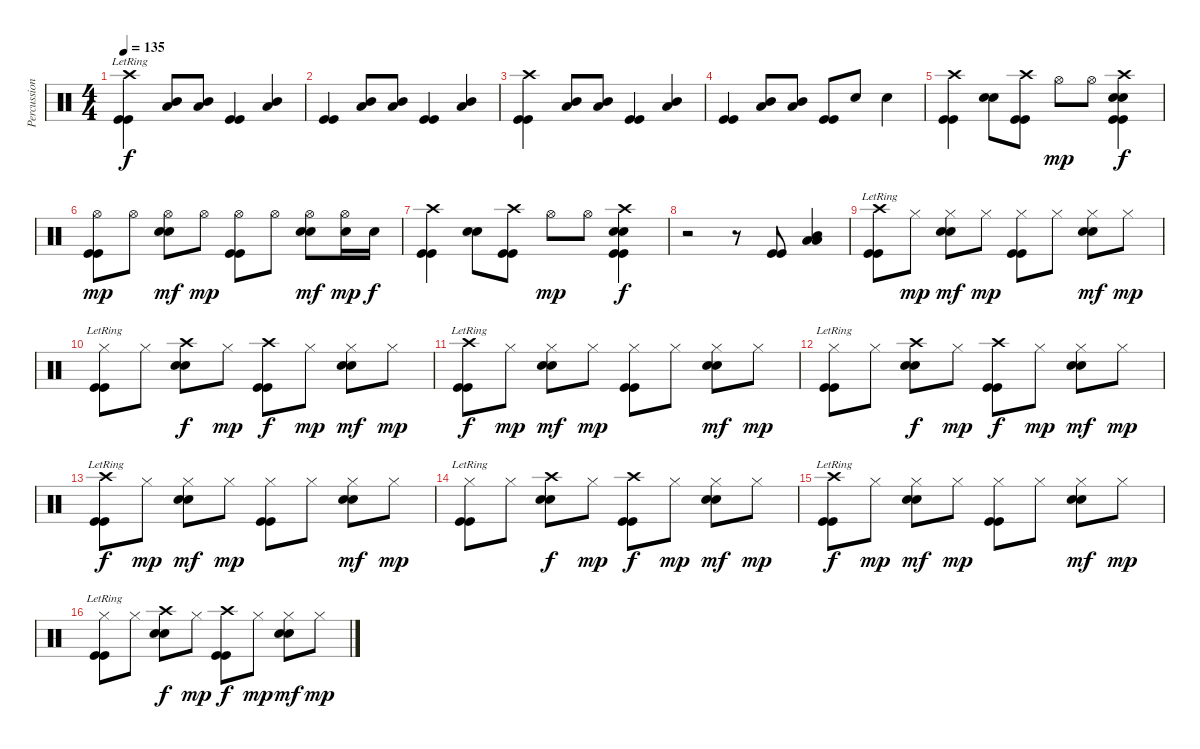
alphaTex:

\track ("Percussions" "Percussion") {instrument percussion}
\staff {score}
\articulation defaults
\ts (4 4)
\tempo 135
\clef neutral
\ks c
("Crash high (hit)"{lr} "Kick (hit)" "Kick (hit)").4{dy f} ("Low Tom (hit)" "Mid Tom (hit)").8 ("Low Tom (hit)" "Mid Tom (hit)").8 ("Kick (hit)" "Kick (hit)").4 ("Low Tom (hit)" "Mid Tom (hit)").4 |
("Kick (hit)" "Kick (hit)").4 ("Low Tom (hit)" "Mid Tom (hit)").8 ("Low Tom (hit)" "Mid Tom (hit)").8 ("Kick (hit)" "Kick (hit)").4 ("Low Tom (hit)" "Mid Tom (hit)").4 |
("Crash high (hit)" "Kick (hit)" "Kick (hit)").4 ("Low Tom (hit)" "Mid Tom (hit)").8 ("Low Tom (hit)" "Mid Tom (hit)").8 ("Kick (hit)" "Kick (hit)").4 ("Low Tom (hit)" "Mid Tom (hit)").4 |
("Kick (hit)" "Kick (hit)").4 ("Low Tom (hit)" "Mid Tom (hit)").8 ("Low Tom (hit)" "Mid Tom (hit)").8 ("Kick (hit)" "Kick (hit)").8 "Snare (hit) 2".8 "Snare (hit) 2".4 |
("Crash high (hit)" "Kick (hit)" "Kick (hit)").4 ("Snare (hit) 2" "Snare (hit) 2").8 ("Crash high (hit)" "Kick (hit)" "Kick (hit)").8 "Hi-Hat (open)".8{dy mp} "Hi-Hat (open)".8 ("Crash high (hit)" "Snare (hit) 2" "Snare (hit) 2" "Kick (hit)" "Kick (hit)").4{dy f} |
("Hi-Hat (open)" "Kick (hit)" "Kick (hit)").8{dy mp} "Hi-Hat (open)".8 ("Hi-Hat (open)" "Snare (hit) 2" "Snare (hit) 2").8{dy mf} "Hi-Hat (open)".8{dy mp} ("Hi-Hat (open)" "Kick (hit)" "Kick (hit)").8 "Hi-Hat (open)".8 ("Hi-Hat (open)" "Snare (hit) 2" "Snare (hit) 2").8{dy mf} ("Hi-Hat (open)" "Snare (hit) 2").16{dy mp} "Snare (hit) 2".16{dy f} |
("Crash high (hit)" "Kick (hit)" "Kick (hit)").4 ("Snare (hit) 2" "Snare (hit) 2").8 ("Crash high (hit)" "Kick (hit)" "Kick (hit)").8 "Hi-Hat (open)".8{dy mp} "Hi-Hat (open)".8 ("Crash high (hit)" "Snare (hit) 2" "Snare (hit) 2" "Kick (hit)" "Kick (hit)").4{dy f} |
r.2 r.8 ("Kick (hit)" "Kick (hit)").8 ("Low Tom (hit)" "Low Tom (hit)" "Mid Tom (hit)").4 |
("Crash high (hit)"{lr} "Kick (hit)" "Kick (hit)").8 "Hi-Hat (closed)".8{dy mp} ("Hi-Hat (closed)" "Snare (hit) 2" "Snare (hit) 2").8{dy mf} "Hi-Hat (closed)".8{dy mp} ("Hi-Hat (closed)" "Kick (hit)" "Kick (hit)").8 "Hi-Hat (closed)".8 ("Hi-Hat (closed)" "Snare (hit) 2" "Snare (hit) 2").8{dy mf} "Hi-Hat (closed)".8{dy mp} |
("Hi-Hat (closed)"{lr} "Kick (hit)" "Kick (hit)").8 "Hi-Hat (closed)".8 ("Crash high (hit)" "Snare (hit) 2" "Snare (hit) 2").8{dy f} "Hi-Hat (closed)".8{dy mp} ("Crash high (hit)" "Kick (hit)" "Kick (hit)").8{dy f} "Hi-Hat (closed)".8{dy mp} ("Hi-Hat (closed)" "Snare (hit) 2" "Snare (hit) 2").8{dy mf} "Hi-Hat (closed)".8{dy mp} |
("Crash high (hit)"{lr} "Kick (hit)" "Kick (hit)").8{dy f} "Hi-Hat (closed)".8{dy mp} ("Hi-Hat (closed)" "Snare (hit) 2" "Snare (hit) 2").8{dy mf} "Hi-Hat (closed)".8{dy mp} ("Hi-Hat (closed)" "Kick (hit)" "Kick (hit)").8 "Hi-Hat (closed)".8 ("Hi-Hat (closed)" "Snare (hit) 2" "Snare (hit) 2").8{dy mf} "Hi-Hat (closed)".8{dy mp} |
("Hi-Hat (closed)"{lr} "Kick (hit)" "Kick (hit)").8 "Hi-Hat (closed)".8 ("Crash high (hit)" "Snare (hit) 2" "Snare (hit) 2").8{dy f} "Hi-Hat (closed)".8{dy mp} ("Crash high (hit)" "Kick (hit)" "Kick (hit)").8{dy f} "Hi-Hat (closed)".8{dy mp} ("Hi-Hat (closed)" "Snare (hit) 2" "Snare (hit) 2").8{dy mf} "Hi-Hat (closed)".8{dy mp} |
("Crash high (hit)"{lr} "Kick (hit)" "Kick (hit)").8{dy f} "Hi-Hat (closed)".8{dy mp} ("Hi-Hat (closed)" "Snare (hit) 2" "Snare (hit) 2").8{dy mf} "Hi-Hat (closed)".8{dy mp} ("Hi-Hat (closed)" "Kick (hit)" "Kick (hit)").8 "Hi-Hat (closed)".8 ("Hi-Hat (closed)" "Snare (hit) 2" "Snare (hit) 2").8{dy mf} "Hi-Hat (closed)".8{dy mp} |
("Hi-Hat (closed)"{lr} "Kick (hit)" "Kick (hit)").8 "Hi-Hat (closed)".8 ("Crash high (hit)" "Snare (hit) 2" "Snare (hit) 2").8{dy f} "Hi-Hat (closed)".8{dy mp} ("Crash high (hit)" "Kick (hit)" "Kick (hit)").8{dy f} "Hi-Hat (closed)".8{dy mp} ("Hi-Hat (closed)" "Snare (hit) 2" "Snare (hit) 2").8{dy mf} "Hi-Hat (closed)".8{dy mp} |
("Crash high (hit)"{lr} "Kick (hit)" "Kick (hit)").8{dy f} "Hi-Hat (closed)".8{dy mp} ("Hi-Hat (closed)" "Snare (hit) 2" "Snare (hit) 2").8{dy mf} "Hi-Hat (closed)".8{dy mp} ("Hi-Hat (closed)" "Kick (hit)" "Kick (hit)").8 "Hi-Hat (closed)".8 ("Hi-Hat (closed)" "Snare (hit) 2" "Snare (hit) 2").8{dy mf} "Hi-Hat (closed)".8{dy mp} |
("Hi-Hat (closed)"{lr} "Kick (hit)" "Kick (hit)").8 "Hi-Hat (closed)".8 ("Crash high (hit)" "Snare (hit) 2" "Snare (hit) 2").8{dy f} "Hi-Hat (closed)".8{dy mp} ("Crash high (hit)" "Kick (hit)" "Kick (hit)").8{dy f} "Hi-Hat (closed)".8{dy mp} ("Hi-Hat (closed)" "Snare (hit) 2" "Snare (hit) 2").8{dy mf} "Hi-Hat (closed)".8{dy mp}
